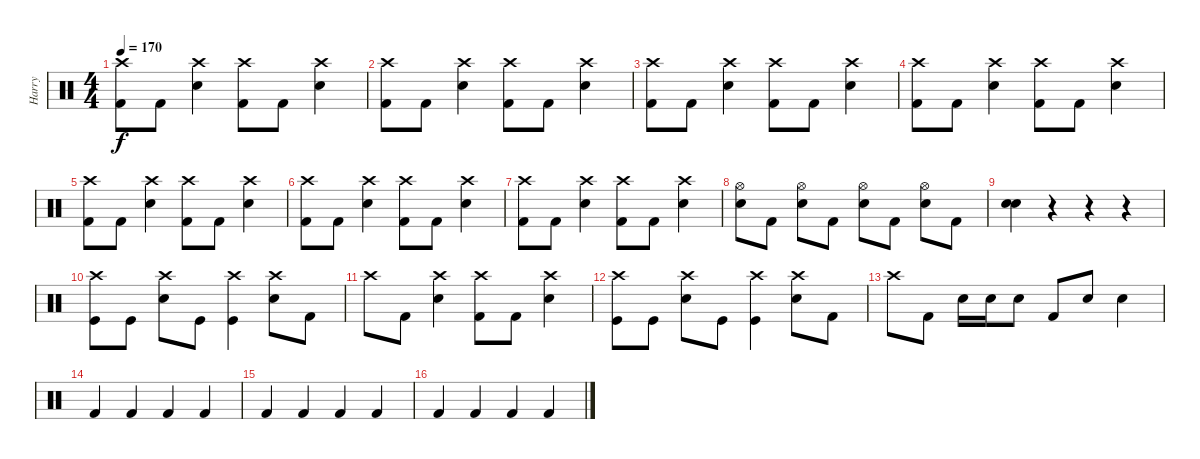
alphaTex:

\track ("Harry" "Harry") {instrument percussion}
\staff {score}
\articulation defaults
\ts (4 4)
\tempo 170
\clef neutral
\ks c
("Kick (hit) 2" "Crash high (hit)").8{dy f} "Kick (hit) 2".8 ("Snare (hit) 2" "Crash high (hit)").4 ("Kick (hit) 2" "Crash high (hit)").8 "Kick (hit) 2".8 ("Snare (hit) 2" "Crash high (hit)").4 |
("Kick (hit) 2" "Crash high (hit)").8 "Kick (hit) 2".8 ("Snare (hit) 2" "Crash high (hit)").4 ("Kick (hit) 2" "Crash high (hit)").8 "Kick (hit) 2".8 ("Snare (hit) 2" "Crash high (hit)").4 |
("Kick (hit) 2" "Crash high (hit)").8 "Kick (hit) 2".8 ("Snare (hit) 2" "Crash high (hit)").4 ("Kick (hit) 2" "Crash high (hit)").8 "Kick (hit) 2".8 ("Snare (hit) 2" "Crash high (hit)").4 |
("Kick (hit) 2" "Crash high (hit)").8 "Kick (hit) 2".8 ("Snare (hit) 2" "Crash high (hit)").4 ("Kick (hit) 2" "Crash high (hit)").8 "Kick (hit) 2".8 ("Snare (hit) 2" "Crash high (hit)").4 |
("Kick (hit) 2" "Crash high (hit)").8 "Kick (hit) 2".8 ("Snare (hit) 2" "Crash high (hit)").4 ("Kick (hit) 2" "Crash high (hit)").8 "Kick (hit) 2".8 ("Snare (hit) 2" "Crash high (hit)").4 |
("Kick (hit) 2" "Crash high (hit)").8 "Kick (hit) 2".8 ("Snare (hit) 2" "Crash high (hit)").4 ("Kick (hit) 2" "Crash high (hit)").8 "Kick (hit) 2".8 ("Snare (hit) 2" "Crash high (hit)").4 |
("Kick (hit) 2" "Crash high (hit)").8 "Kick (hit) 2".8 ("Snare (hit) 2" "Crash high (hit)").4 ("Kick (hit) 2" "Crash high (hit)").8 "Kick (hit) 2".8 ("Snare (hit) 2" "Crash high (hit)").4 |
("Hi-Hat (open)" "Snare (hit) 2").8 "Kick (hit) 2".8 ("Hi-Hat (open)" "Snare (hit) 2").8 "Kick (hit) 2".8 ("Hi-Hat (open)" "Snare (hit) 2").8 "Kick (hit) 2".8 ("Hi-Hat (open)" "Snare (hit) 2").8 "Kick (hit) 2".8 |
("Snare (hit) 2" "Snare (hit) 2").4 r.4 r.4 r.4 |
("Kick (hit)" "Crash high (hit)").8 "Kick (hit)".8 ("Snare (hit) 2" "Crash high (hit)").8 "Kick (hit)".8 ("Kick (hit)" "Crash high (hit)").4 ("Snare (hit) 2" "Crash high (hit)").8 "Kick (hit) 2".8 |
"Crash high (hit)".8 "Kick (hit) 2".8 ("Snare (hit) 2" "Crash high (hit)").4 ("Kick (hit) 2" "Crash high (hit)").8 "Kick (hit) 2".8 ("Snare (hit) 2" "Crash high (hit)").4 |
("Kick (hit)" "Crash high (hit)").8 "Kick (hit)".8 ("Snare (hit) 2" "Crash high (hit)").8 "Kick (hit)".8 ("Kick (hit)" "Crash high (hit)").4 ("Snare (hit) 2" "Crash high (hit)").8 "Kick (hit) 2".8 |
"Crash high (hit)".8 "Kick (hit) 2".8 "Snare (hit) 2".16 "Snare (hit) 2".16 "Snare (hit) 2".8 "Kick (hit) 2".8 "Snare (hit) 2".8 "Snare (hit) 2".4 |
"Kick (hit) 2".4 "Kick (hit) 2".4 "Kick (hit) 2".4 "Kick (hit) 2".4 |
"Kick (hit) 2".4 "Kick (hit) 2".4 "Kick (hit) 2".4 "Kick (hit) 2".4 |
"Kick (hit) 2".4 "Kick (hit) 2".4 "Kick (hit) 2".4 "Kick (hit) 2".4
